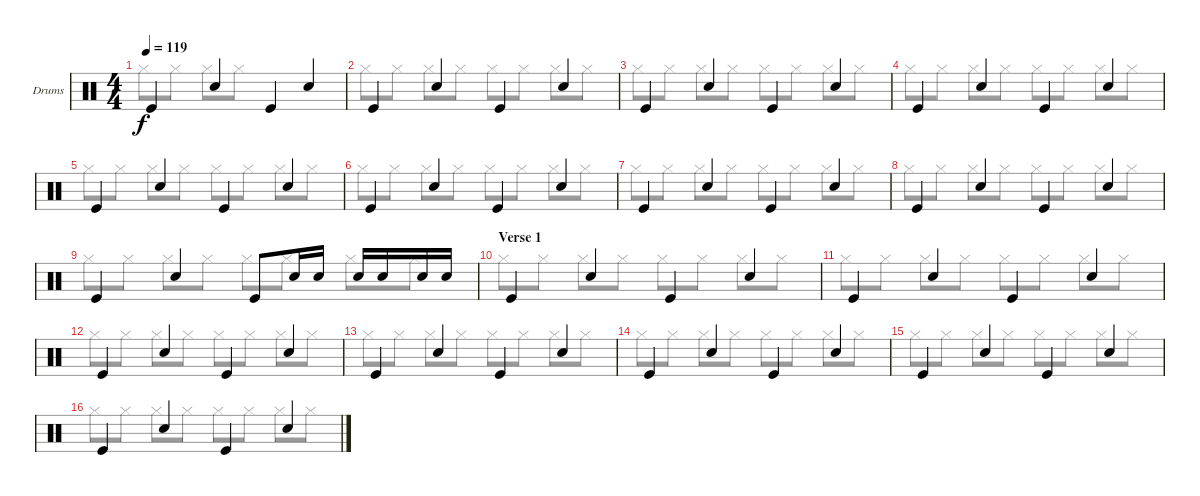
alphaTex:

\defaultSystemsLayout 4
\bracketExtendMode groupsimilarinstruments
\firstSystemTrackNameOrientation horizontal
\otherSystemsTrackNameOrientation horizontal
\track ("Drumkit" "Drums") {instrument percussion}
\staff {score}
\articulation defaults
\voice
\ts (4 4)
\tempo 119
\clef neutral
\ks c "Kick (hit)".4{dy f} "Snare (hit) 2".4 "Kick (hit)".4 "Snare (hit) 2".4
|
"Kick (hit)".4 "Snare (hit) 2".4 "Kick (hit)".4 "Snare (hit) 2".4 |
"Kick (hit)".4 "Snare (hit) 2".4 "Kick (hit)".4 "Snare (hit) 2".4 |
"Kick (hit)".4 "Snare (hit) 2".4 "Kick (hit)".4 "Snare (hit) 2".4 |
"Kick (hit)".4 "Snare (hit) 2".4 "Kick (hit)".4 "Snare (hit) 2".4 |
"Kick (hit)".4 "Snare (hit) 2".4 "Kick (hit)".4 "Snare (hit) 2".4 |
"Kick (hit)".4 "Snare (hit) 2".4 "Kick (hit)".4 "Snare (hit) 2".4 |
"Kick (hit)".4 "Snare (hit) 2".4 "Kick (hit)".4 "Snare (hit) 2".4 |
"Kick (hit)".4 "Snare (hit) 2".4 "Kick (hit)".8 "Snare (hit) 2".16 "Snare (hit) 2".16 "Snare (hit) 2".16 "Snare (hit) 2".16 "Snare (hit) 2".16 "Snare (hit) 2".16 |
\section ("" "Verse 1")
"Kick (hit)".4 "Snare (hit) 2".4 "Kick (hit)".4 "Snare (hit) 2".4 |
"Kick (hit)".4 "Snare (hit) 2".4 "Kick (hit)".4 "Snare (hit) 2".4 |
"Kick (hit)".4 "Snare (hit) 2".4 "Kick (hit)".4 "Snare (hit) 2".4 |
"Kick (hit)".4 "Snare (hit) 2".4 "Kick (hit)".4 "Snare (hit) 2".4 |
"Kick (hit)".4 "Snare (hit) 2".4 "Kick (hit)".4 "Snare (hit) 2".4 |
"Kick (hit)".4 "Snare (hit) 2".4 "Kick (hit)".4 "Snare (hit) 2".4 |
"Kick (hit)".4 "Snare (hit) 2".4 "Kick (hit)".4 "Snare (hit) 2".4
\voice
\clef neutral
\ottava regular
\simile none
\ks c "Hi-Hat (closed)".8{dy f} "Hi-Hat (closed)".8 "Hi-Hat (closed)".8 "Hi-Hat (closed)".8
|
"Hi-Hat (closed)".8 "Hi-Hat (closed)".8 "Hi-Hat (closed)".8 "Hi-Hat (closed)".8 "Hi-Hat (closed)".8 "Hi-Hat (closed)".8 "Hi-Hat (closed)".8 "Hi-Hat (closed)".8 |
"Hi-Hat (closed)".8 "Hi-Hat (closed)".8 "Hi-Hat (closed)".8 "Hi-Hat (closed)".8 "Hi-Hat (closed)".8 "Hi-Hat (closed)".8 "Hi-Hat (closed)".8 "Hi-Hat (closed)".8 |
"Hi-Hat (closed)".8 "Hi-Hat (closed)".8 "Hi-Hat (closed)".8 "Hi-Hat (closed)".8 "Hi-Hat (closed)".8 "Hi-Hat (closed)".8 "Hi-Hat (closed)".8 "Hi-Hat (closed)".8 |
"Hi-Hat (closed)".8 "Hi-Hat (closed)".8 "Hi-Hat (closed)".8 "Hi-Hat (closed)".8 "Hi-Hat (closed)".8 "Hi-Hat (closed)".8 "Hi-Hat (closed)".8 "Hi-Hat (closed)".8 |
"Hi-Hat (closed)".8 "Hi-Hat (closed)".8 "Hi-Hat (closed)".8 "Hi-Hat (closed)".8 "Hi-Hat (closed)".8 "Hi-Hat (closed)".8 "Hi-Hat (closed)".8 "Hi-Hat (closed)".8 |
"Hi-Hat (closed)".8 "Hi-Hat (closed)".8 "Hi-Hat (closed)".8 "Hi-Hat (closed)".8 "Hi-Hat (closed)".8 "Hi-Hat (closed)".8 "Hi-Hat (closed)".8 "Hi-Hat (closed)".8 |
"Hi-Hat (closed)".8 "Hi-Hat (closed)".8 "Hi-Hat (closed)".8 "Hi-Hat (closed)".8 "Hi-Hat (closed)".8 "Hi-Hat (closed)".8 "Hi-Hat (closed)".8 "Hi-Hat (closed)".8 |
"Hi-Hat (closed)".8 "Hi-Hat (closed)".8 "Hi-Hat (closed)".8 "Hi-Hat (closed)".8 "Hi-Hat (closed)".8 "Hi-Hat (closed)".8 "Hi-Hat (closed)".8 "Hi-Hat (closed)".8 |
"Hi-Hat (closed)".8 "Hi-Hat (closed)".8 "Hi-Hat (closed)".8 "Hi-Hat (closed)".8 "Hi-Hat (closed)".8 "Hi-Hat (closed)".8 "Hi-Hat (closed)".8 "Hi-Hat (closed)".8 |
"Hi-Hat (closed)".8 "Hi-Hat (closed)".8 "Hi-Hat (closed)".8 "Hi-Hat (closed)".8 "Hi-Hat (closed)".8 "Hi-Hat (closed)".8 "Hi-Hat (closed)".8 "Hi-Hat (closed)".8 |
"Hi-Hat (closed)".8 "Hi-Hat (closed)".8 "Hi-Hat (closed)".8 "Hi-Hat (closed)".8 "Hi-Hat (closed)".8 "Hi-Hat (closed)".8 "Hi-Hat (closed)".8 "Hi-Hat (closed)".8 |
"Hi-Hat (closed)".8 "Hi-Hat (closed)".8 "Hi-Hat (closed)".8 "Hi-Hat (closed)".8 "Hi-Hat (closed)".8 "Hi-Hat (closed)".8 "Hi-Hat (closed)".8 "Hi-Hat (closed)".8 |
"Hi-Hat (closed)".8 "Hi-Hat (closed)".8 "Hi-Hat (closed)".8 "Hi-Hat (closed)".8 "Hi-Hat (closed)".8 "Hi-Hat (closed)".8 "Hi-Hat (closed)".8 "Hi-Hat (closed)".8 |
"Hi-Hat (closed)".8 "Hi-Hat (closed)".8 "Hi-Hat (closed)".8 "Hi-Hat (closed)".8 "Hi-Hat (closed)".8 "Hi-Hat (closed)".8 "Hi-Hat (closed)".8 "Hi-Hat (closed)".8 |
"Hi-Hat (closed)".8 "Hi-Hat (closed)".8 "Hi-Hat (closed)".8 "Hi-Hat (closed)".8 "Hi-Hat (closed)".8 "Hi-Hat (closed)".8 "Hi-Hat (closed)".8 "Hi-Hat (closed)".8
